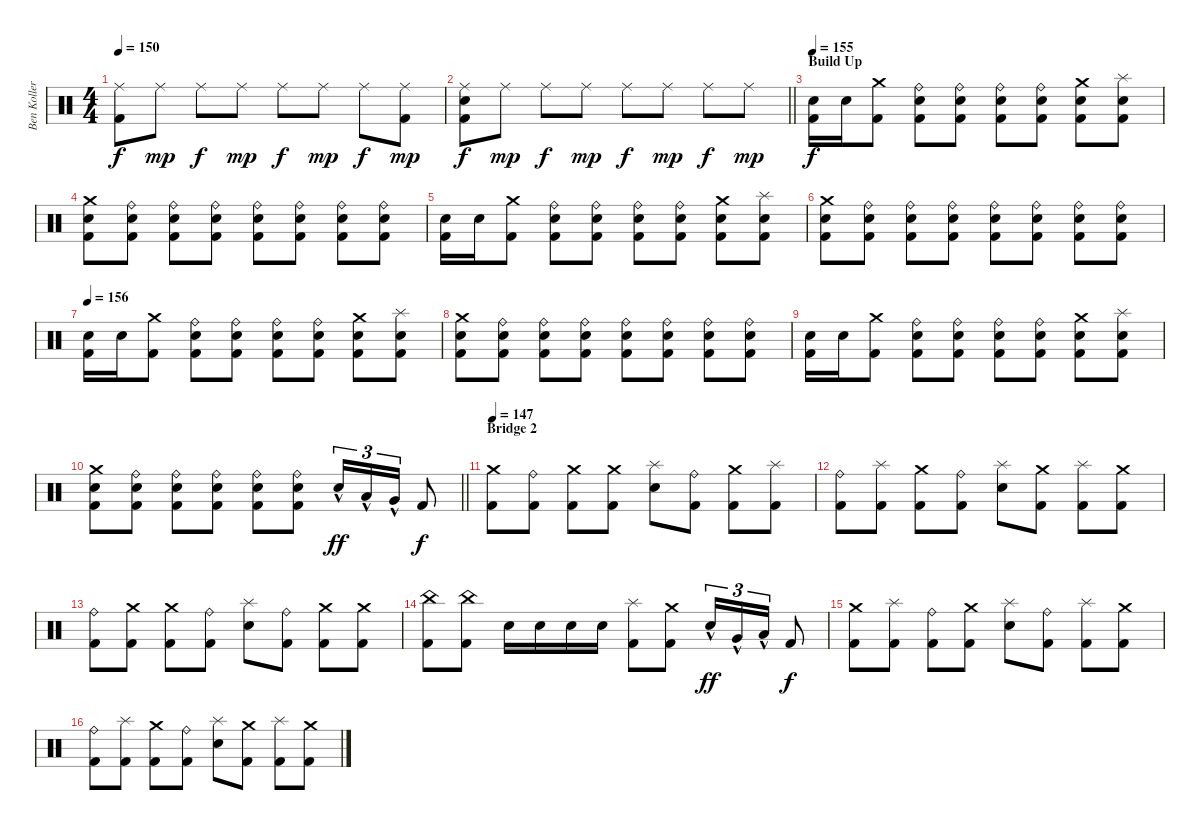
\track ("Ben Koller" "Ben Koller") {instrument percussion}
\staff {score}
\articulation defaults
\ts (4 4)
\tempo 150
\clef neutral
\ks c
("Ride (middle)" "Kick (hit) 2").8{dy f} "Ride (middle)".8{dy mp} "Ride (middle)".8{dy f} "Ride (middle)".8{dy mp} "Ride (middle)".8{dy f} "Ride (middle)".8{dy mp} "Ride (middle)".8{dy f} ("Ride (middle)" "Kick (hit) 2").8{dy mp} |
\barLineRight lightlight
("Ride (middle)" "Electric Snare (hit)" "Kick (hit) 2").8{dy f} "Ride (middle)".8{dy mp} "Ride (middle)".8{dy f} "Ride (middle)".8{dy mp} "Ride (middle)".8{dy f} "Ride (middle)".8{dy mp} "Ride (middle)".8{dy f} "Ride (middle)".8{dy mp} |
\section ("" "Build Up")
\tempo 155
("Electric Snare (hit)" "Kick (hit) 2").16{dy f} "Electric Snare (hit)".16 ("Crash medium (hit)" "Kick (hit) 2").8 ("Ride (bell)" "Electric Snare (hit)" "Kick (hit) 2").8 ("Ride (bell)" "Electric Snare (hit)" "Kick (hit) 2").8 ("Ride (bell)" "Electric Snare (hit)" "Kick (hit) 2").8 ("Ride (bell)" "Electric Snare (hit)" "Kick (hit) 2").8 ("Crash medium (hit)" "Electric Snare (hit)" "Kick (hit) 2").8 ("Splash (hit)" "Electric Snare (hit)" "Kick (hit) 2").8 |
("Crash medium (hit)" "Electric Snare (hit)" "Kick (hit) 2").8 ("Ride (bell)" "Electric Snare (hit)" "Kick (hit) 2").8 ("Ride (bell)" "Electric Snare (hit)" "Kick (hit) 2").8 ("Ride (bell)" "Electric Snare (hit)" "Kick (hit) 2").8 ("Ride (bell)" "Electric Snare (hit)" "Kick (hit) 2").8 ("Ride (bell)" "Electric Snare (hit)" "Kick (hit) 2").8 ("Ride (bell)" "Electric Snare (hit)" "Kick (hit) 2").8 ("Ride (bell)" "Electric Snare (hit)" "Kick (hit) 2").8 |
("Electric Snare (hit)" "Kick (hit) 2").16 "Electric Snare (hit)".16 ("Crash medium (hit)" "Kick (hit) 2").8 ("Ride (bell)" "Electric Snare (hit)" "Kick (hit) 2").8 ("Ride (bell)" "Electric Snare (hit)" "Kick (hit) 2").8 ("Ride (bell)" "Electric Snare (hit)" "Kick (hit) 2").8 ("Ride (bell)" "Electric Snare (hit)" "Kick (hit) 2").8 ("Crash medium (hit)" "Electric Snare (hit)" "Kick (hit) 2").8 ("Splash (hit)" "Electric Snare (hit)" "Kick (hit) 2").8 |
("Crash medium (hit)" "Electric Snare (hit)" "Kick (hit) 2").8 ("Ride (bell)" "Electric Snare (hit)" "Kick (hit) 2").8 ("Ride (bell)" "Electric Snare (hit)" "Kick (hit) 2").8 ("Ride (bell)" "Electric Snare (hit)" "Kick (hit) 2").8 ("Ride (bell)" "Electric Snare (hit)" "Kick (hit) 2").8 ("Ride (bell)" "Electric Snare (hit)" "Kick (hit) 2").8 ("Ride (bell)" "Electric Snare (hit)" "Kick (hit) 2").8 ("Ride (bell)" "Electric Snare (hit)" "Kick (hit) 2").8 |
\tempo 156
("Electric Snare (hit)" "Kick (hit) 2").16 "Electric Snare (hit)".16 ("Crash medium (hit)" "Kick (hit) 2").8 ("Ride (bell)" "Electric Snare (hit)" "Kick (hit) 2").8 ("Ride (bell)" "Electric Snare (hit)" "Kick (hit) 2").8 ("Ride (bell)" "Electric Snare (hit)" "Kick (hit) 2").8 ("Ride (bell)" "Electric Snare (hit)" "Kick (hit) 2").8 ("Crash medium (hit)" "Electric Snare (hit)" "Kick (hit) 2").8 ("Splash (hit)" "Electric Snare (hit)" "Kick (hit) 2").8 |
("Crash medium (hit)" "Electric Snare (hit)" "Kick (hit) 2").8 ("Ride (bell)" "Electric Snare (hit)" "Kick (hit) 2").8 ("Ride (bell)" "Electric Snare (hit)" "Kick (hit) 2").8 ("Ride (bell)" "Electric Snare (hit)" "Kick (hit) 2").8 ("Ride (bell)" "Electric Snare (hit)" "Kick (hit) 2").8 ("Ride (bell)" "Electric Snare (hit)" "Kick (hit) 2").8 ("Ride (bell)" "Electric Snare (hit)" "Kick (hit) 2").8 ("Ride (bell)" "Electric Snare (hit)" "Kick (hit) 2").8 |
("Electric Snare (hit)" "Kick (hit) 2").16 "Electric Snare (hit)".16 ("Crash medium (hit)" "Kick (hit) 2").8 ("Ride (bell)" "Electric Snare (hit)" "Kick (hit) 2").8 ("Ride (bell)" "Electric Snare (hit)" "Kick (hit) 2").8 ("Ride (bell)" "Electric Snare (hit)" "Kick (hit) 2").8 ("Ride (bell)" "Electric Snare (hit)" "Kick (hit) 2").8 ("Crash medium (hit)" "Electric Snare (hit)" "Kick (hit) 2").8 ("Splash (hit)" "Electric Snare (hit)" "Kick (hit) 2").8 |
\barLineRight lightlight
("Crash medium (hit)" "Electric Snare (hit)" "Kick (hit) 2").8 ("Ride (bell)" "Electric Snare (hit)" "Kick (hit) 2").8 ("Ride (bell)" "Electric Snare (hit)" "Kick (hit) 2").8 ("Ride (bell)" "Electric Snare (hit)" "Kick (hit) 2").8 ("Ride (bell)" "Electric Snare (hit)" "Kick (hit) 2").8 ("Ride (bell)" "Electric Snare (hit)" "Kick (hit) 2").8 "Electric Snare (hit)"{hac}.16{tu (3 2) dy ff} "Low Tom (hit)"{hac}.16{tu (3 2)} "Very Low Tom (hit)"{hac}.16{tu (3 2)} "Kick (hit) 2".8{dy f} |
\section ("" "Bridge 2")
\tempo 147
("Crash medium (hit)" "Kick (hit) 2").8 ("Ride (bell)" "Kick (hit) 2").8 ("Crash medium (hit)" "Kick (hit) 2").8 ("Crash medium (hit)" "Kick (hit) 2").8 ("Splash (hit)" "Electric Snare (hit)").8 ("Ride (bell)" "Kick (hit) 2").8 ("Crash medium (hit)" "Kick (hit) 2").8 ("Splash (hit)" "Kick (hit) 2").8 |
("Ride (bell)" "Kick (hit) 2").8 ("Splash (hit)" "Kick (hit) 2").8 ("Crash medium (hit)" "Kick (hit) 2").8 ("Ride (bell)" "Kick (hit) 2").8 ("Splash (hit)" "Electric Snare (hit)").8 ("Crash medium (hit)" "Kick (hit) 2").8 ("Splash (hit)" "Kick (hit) 2").8 ("Crash medium (hit)" "Kick (hit) 2").8 |
("Ride (bell)" "Kick (hit) 2").8 ("Crash medium (hit)" "Kick (hit) 2").8 ("Crash medium (hit)" "Kick (hit) 2").8 ("Ride (bell)" "Kick (hit) 2").8 ("Splash (hit)" "Electric Snare (hit)").8 ("Ride (bell)" "Kick (hit) 2").8 ("Crash medium (hit)" "Kick (hit) 2").8 ("Crash medium (hit)" "Kick (hit) 2").8 |
("China (hit)" "Kick (hit) 2").8 ("China (hit)" "Kick (hit) 2").8 "Electric Snare (hit)".16 "Electric Snare (hit)".16 "Electric Snare (hit)".16 "Electric Snare (hit)".16 ("Splash (hit)" "Kick (hit) 2").8 ("Crash medium (hit)" "Kick (hit) 2").8 "Electric Snare (hit)"{hac}.16{tu (3 2) dy ff} "Very Low Tom (hit)"{hac}.16{tu (3 2)} "Low Tom (hit)"{hac}.16{tu (3 2)} "Kick (hit) 2".8{dy f} |
("Crash medium (hit)" "Kick (hit) 2").8 ("Splash (hit)" "Kick (hit) 2").8 ("Ride (bell)" "Kick (hit) 2").8 ("Crash medium (hit)" "Kick (hit) 2").8 ("Splash (hit)" "Electric Snare (hit)").8 ("Ride (bell)" "Kick (hit) 2").8 ("Splash (hit)" "Kick (hit) 2").8 ("Crash medium (hit)" "Kick (hit) 2").8 |
("Ride (bell)" "Kick (hit) 2").8 ("Splash (hit)" "Kick (hit) 2").8 ("Crash medium (hit)" "Kick (hit) 2").8 ("Ride (bell)" "Kick (hit) 2").8 ("Splash (hit)" "Electric Snare (hit)").8 ("Crash medium (hit)" "Kick (hit) 2").8 ("Splash (hit)" "Kick (hit) 2").8 ("Crash medium (hit)" "Kick (hit) 2").8
